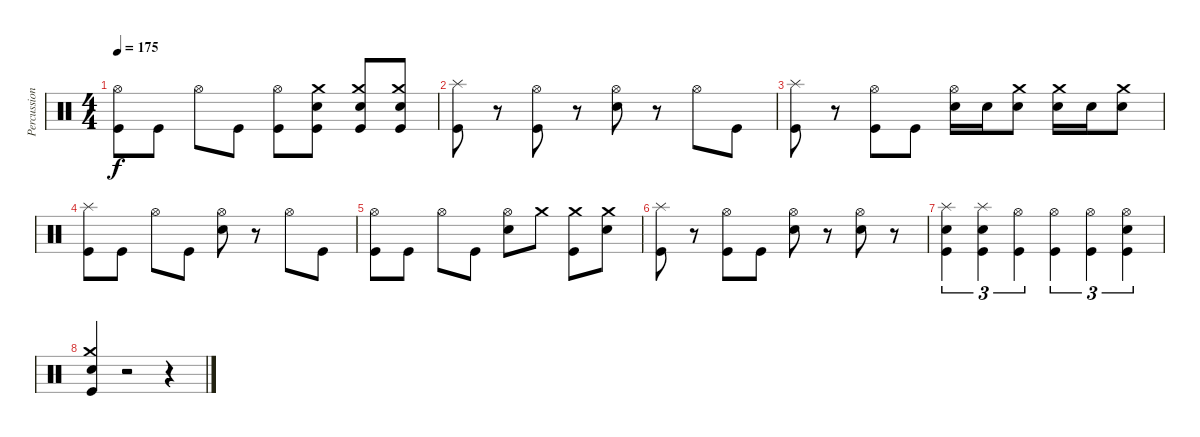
\track ("Percussions" "Percussion") {instrument percussion}
\staff {score}
\articulation defaults
\ts (4 4)
\tempo 175
\clef neutral
\ks c
("Hi-Hat (open)" "Kick (hit)").8{dy f} "Kick (hit)".8 "Hi-Hat (open)".8 "Kick (hit)".8 ("Hi-Hat (open)" "Kick (hit)").8 ("Crash medium (hit)" "Snare (hit) 2" "Kick (hit)").8 ("Crash medium (hit)" "Snare (hit) 2" "Kick (hit)").8 ("Crash medium (hit)" "Snare (hit) 2" "Kick (hit)").8 |
("Splash (hit)" "Kick (hit)").8 r.8 ("Hi-Hat (open)" "Kick (hit)").8 r.8 ("Hi-Hat (open)" "Snare (hit) 2").8 r.8 "Hi-Hat (open)".8 "Kick (hit)".8 |
("Splash (hit)" "Kick (hit)").8 r.8 ("Hi-Hat (open)" "Kick (hit)").8 "Kick (hit)".8 ("Hi-Hat (open)" "Snare (hit) 2").16 "Snare (hit) 2".16 ("Crash medium (hit)" "Snare (hit) 2").8 ("Crash medium (hit)" "Snare (hit) 2").16 "Snare (hit) 2".16 ("Crash medium (hit)" "Snare (hit) 2").8 |
("Splash (hit)" "Kick (hit)").8 "Kick (hit)".8 "Hi-Hat (open)".8 "Kick (hit)".8 ("Hi-Hat (open)" "Snare (hit) 2").8 r.8 "Hi-Hat (open)".8 "Kick (hit)".8 |
("Hi-Hat (open)" "Kick (hit)").8 "Kick (hit)".8 "Hi-Hat (open)".8 "Kick (hit)".8 ("Hi-Hat (open)" "Snare (hit) 2").8 "Crash medium (hit)".8 ("Crash medium (hit)" "Kick (hit)").8 ("Crash medium (hit)" "Snare (hit) 2").8 |
("Splash (hit)" "Kick (hit)").8 r.8 ("Hi-Hat (open)" "Kick (hit)").8 "Kick (hit)".8 ("Hi-Hat (open)" "Snare (hit) 2").8 r.8 ("Hi-Hat (open)" "Snare (hit) 2").8 r.8 |
("Splash (hit)" "Snare (hit) 2" "Kick (hit)").4{tu (3 2)} ("Splash (hit)" "Snare (hit) 2" "Kick (hit)").4{tu (3 2)} ("Hi-Hat (open)" "Kick (hit)").4{tu (3 2)} ("Hi-Hat (open)" "Kick (hit)").4{tu (3 2)} ("Hi-Hat (open)" "Kick (hit)").4{tu (3 2)} ("Hi-Hat (open)" "Snare (hit) 2" "Kick (hit)").4{tu (3 2)} |
("Crash medium (hit)" "Snare (hit) 2" "Kick (hit)").4 r.2 r.4
